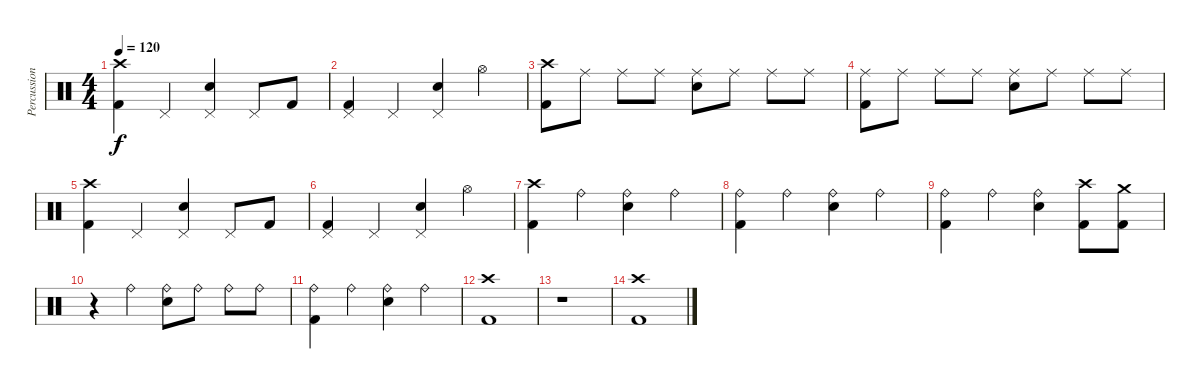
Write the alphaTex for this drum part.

\track ("Percussion" "Percussion") {instrument percussion}
\staff {score}
\articulation defaults
\ts (4 4)
\tempo 120
\clef neutral
\ks c
("Crash high (hit)" "Kick (hit) 2").4{dy f} "Pedal Hi-Hat (hit)".4 ("Pedal Hi-Hat (hit)" "Snare (hit) 2").4 "Pedal Hi-Hat (hit)".8 "Kick (hit) 2".8 |
("Pedal Hi-Hat (hit)" "Kick (hit) 2").4 "Pedal Hi-Hat (hit)".4 ("Pedal Hi-Hat (hit)" "Snare (hit) 2").4 "Hi-Hat (open)".4 |
("Crash high (hit)" "Kick (hit) 2").8 "Ride (middle)".8 "Ride (middle)".8 "Ride (middle)".8 ("Ride (middle)" "Snare (hit) 2").8 "Ride (middle)".8 "Ride (middle)".8 "Ride (middle)".8 |
("Ride (middle)" "Kick (hit) 2").8 "Ride (middle)".8 "Ride (middle)".8 "Ride (middle)".8 ("Ride (middle)" "Snare (hit) 2").8 "Ride (middle)".8 "Ride (middle)".8 "Ride (middle)".8 |
("Crash high (hit)" "Kick (hit) 2").4 "Pedal Hi-Hat (hit)".4 ("Pedal Hi-Hat (hit)" "Snare (hit) 2").4 "Pedal Hi-Hat (hit)".8 "Kick (hit) 2".8 |
("Pedal Hi-Hat (hit)" "Kick (hit) 2").4 "Pedal Hi-Hat (hit)".4 ("Pedal Hi-Hat (hit)" "Snare (hit) 2").4 "Hi-Hat (open)".4 |
("Crash high (hit)" "Kick (hit) 2").4 "Ride (bell)".4 ("Ride (bell)" "Snare (hit) 2").4 "Ride (bell)".4 |
("Ride (bell)" "Kick (hit) 2").4 "Ride (bell)".4 ("Ride (bell)" "Snare (hit) 2").4 "Ride (bell)".4 |
("Ride (bell)" "Kick (hit) 2").4 "Ride (bell)".4 ("Ride (bell)" "Snare (hit) 2").4 ("Crash high (hit)" "Kick (hit) 2").8 ("Crash medium (hit)" "Kick (hit) 2").8 |
r.4 "Ride (bell)".4 ("Ride (bell)" "Snare (hit) 2").8 "Ride (bell)".8 "Ride (bell)".8 "Ride (bell)".8 |
("Ride (bell)" "Kick (hit) 2").4 "Ride (bell)".4 ("Ride (bell)" "Snare (hit) 2").4 "Ride (bell)".4 |
("Crash high (hit)" "Kick (hit) 2").1 |
r.1 |
("Crash high (hit)" "Kick (hit) 2").1
